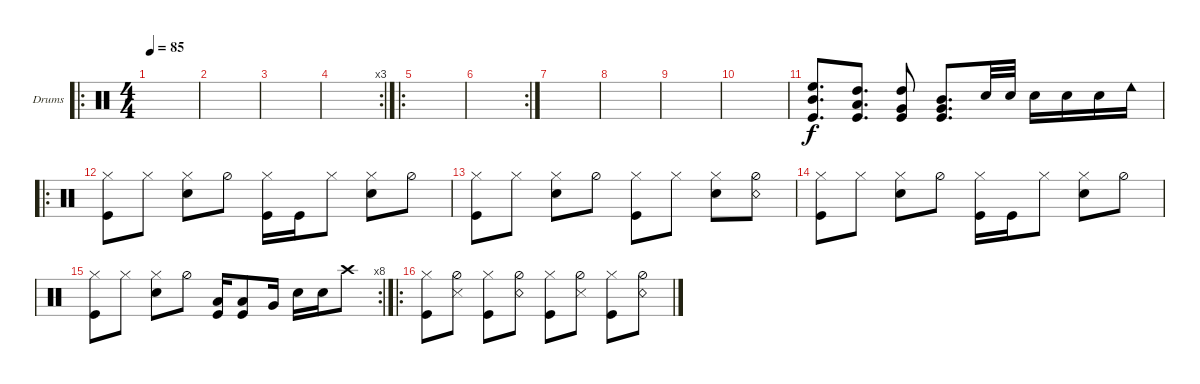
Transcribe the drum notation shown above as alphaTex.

\defaultSystemsLayout 4
\bracketExtendMode groupsimilarinstruments
\firstSystemTrackNameOrientation horizontal
\otherSystemsTrackNameOrientation horizontal
\track ("Drumkit" "Drums") {instrument percussion}
\staff {score}
\articulation defaults
\ro
\ts (4 4)
\tempo 85
\clef neutral
\scale
0.502222
\ks c
|
\scale
0.248889 |
\scale
0.248889 |
\rc 3
\scale
0.322917 |
\ro
\scale
0.354167 |
\rc 2
\scale
0.322917 |
\scale
0.333333 |
\scale
0.333333 |
\scale
0.333333 |
\scale
0.311111 |
\scale
0.311111 ("Mid Tom (hit)" "Kick (hit)" "High Floor Tom (hit)").8{d} ("Low Tom (hit)" "Kick (hit)" "High Tom (hit)").8{d} ("Very Low Tom (hit)" "Kick (hit)" "High Tom (hit)").8 ("Very Low Tom (hit)" "Kick (hit)" "Mid Tom (hit)").8{d} "Snare (hit) 2".32 "Snare (hit) 2".32 "Snare (hit) 2".16 "Snare (hit) 2".16 "Snare (hit) 2".16 "Cowbell low (hit)".16 |
\ro
\scale
0.377778 ("Hi-Hat (closed)" "Kick (hit)").8 "Hi-Hat (closed)".8 ("Hi-Hat (closed)" "Snare (hit) 2").8 "Hi-Hat (half)".8 ("Hi-Hat (closed)" "Kick (hit)").16 "Kick (hit)".16 "Hi-Hat (closed)".8 ("Hi-Hat (closed)" "Snare (hit) 2").8 "Hi-Hat (half)".8 |
\scale
0.321839 ("Hi-Hat (closed)" "Kick (hit)").8 "Hi-Hat (closed)".8 ("Hi-Hat (closed)" "Snare (hit) 2").8 "Hi-Hat (half)".8 ("Hi-Hat (closed)" "Kick (hit)").8 "Hi-Hat (closed)".8 ("Hi-Hat (closed)" "Snare (hit) 2").8 ("Hi-Hat (half)" "Snare (rim shot)").8 |
\scale
0.321839 ("Hi-Hat (closed)" "Kick (hit)").8 "Hi-Hat (closed)".8 ("Hi-Hat (closed)" "Snare (hit) 2").8 "Hi-Hat (half)".8 ("Hi-Hat (closed)" "Kick (hit)").16 "Kick (hit)".16 "Hi-Hat (closed)".8 ("Hi-Hat (closed)" "Snare (hit) 2").8 "Hi-Hat (half)".8 |
\rc 8
\scale
0.356322 ("Hi-Hat (closed)" "Kick (hit)").8 "Hi-Hat (closed)".8 ("Hi-Hat (closed)" "Snare (hit) 2").8 "Hi-Hat (half)".8 ("Low Tom (hit)" "Kick (hit)").16 ("Low Tom (hit)" "Kick (hit)").8 "Very Low Tom (hit)".16 "Snare (hit) 2".16 "Snare (hit) 2".16 "Crash high (hit)".8 |
\ro
\scale
0.365591 ("Hi-Hat (closed)" "Kick (hit)").8 ("Hi-Hat (half)" "Snare (side stick) 3").8 ("Hi-Hat (closed)" "Kick (hit)").8 ("Hi-Hat (half)" "Snare (rim shot)").8 ("Hi-Hat (closed)" "Kick (hit)").8 ("Hi-Hat (half)" "Snare (side stick) 3").8 ("Hi-Hat (closed)" "Kick (hit)").8 ("Hi-Hat (half)" "Snare (rim shot)").8
